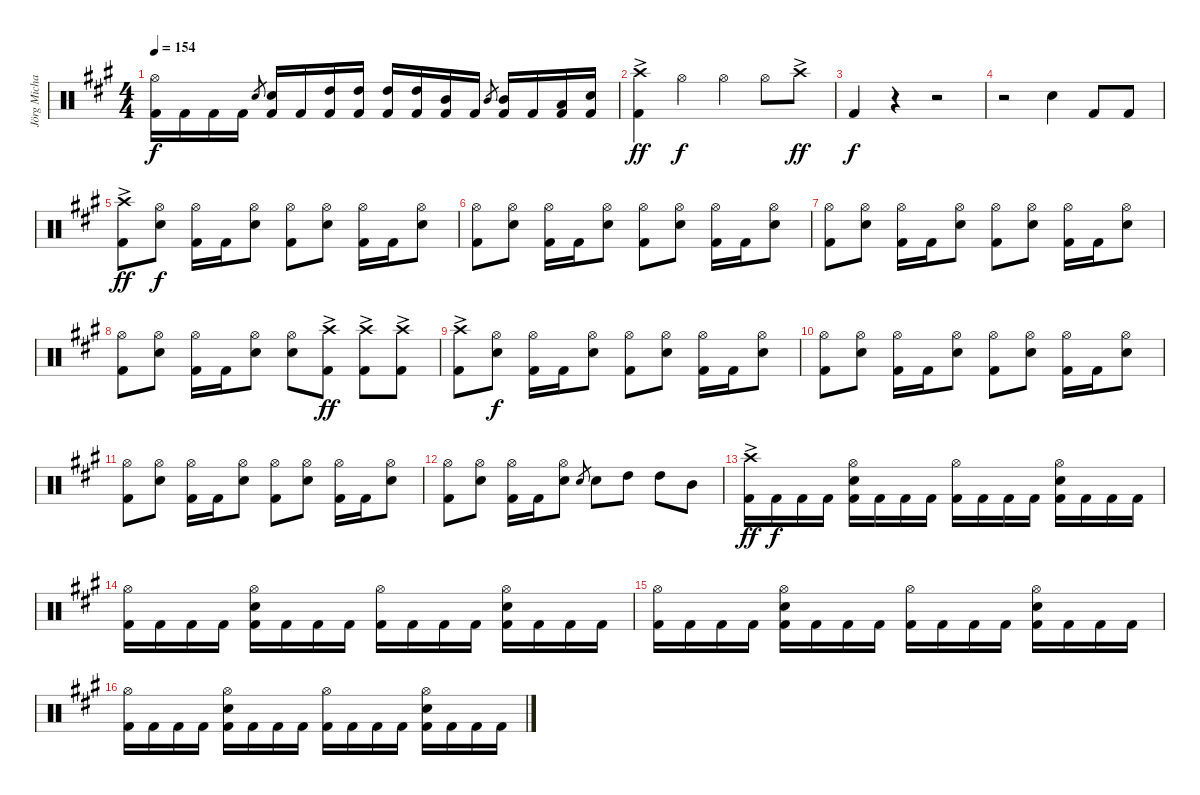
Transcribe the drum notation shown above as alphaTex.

\track ("Jörg Michael" "Jörg Micha") {instrument percussion}
\staff {score}
\articulation defaults
\ts (4 4)
\tempo 154
\clef neutral
\ks a
("Hi-Hat (open)" "Kick (hit) 2").16{dy f} "Kick (hit) 2".16 "Kick (hit) 2".16 "Kick (hit) 2".16 "Electric Snare (hit)".8{gr} ("Electric Snare (hit)" "Kick (hit) 2").16 "Kick (hit) 2".16 ("High Tom (hit)" "Kick (hit) 2").16 ("High Tom (hit)" "Kick (hit) 2").16 ("High Tom (hit)" "Kick (hit) 2").16 ("High Tom (hit)" "Kick (hit) 2").16 ("Mid Tom (hit)" "Kick (hit) 2").16 "Kick (hit) 2".16 "Mid Tom (hit)".8{gr} ("Mid Tom (hit)" "Kick (hit) 2").16 "Kick (hit) 2".16 ("Low Tom (hit)" "Kick (hit) 2").16 ("Electric Snare (hit)" "Kick (hit) 2").16 |
("Crash high (hit)"{ac} "Kick (hit) 2"{ac}).4{dy ff} "Hi-Hat (open)".4{dy f} "Hi-Hat (open)".4 "Hi-Hat (open)".8 "Crash high (hit)"{ac}.8{dy ff} |
"Kick (hit) 2".4{dy f} r.4 r.2 |
r.2 "Electric Snare (hit)".4 "Kick (hit) 2".8 "Kick (hit) 2".8 |
("Crash high (hit)"{ac} "Kick (hit) 2"{ac}).8{dy ff} ("Hi-Hat (open)" "Electric Snare (hit)").8{dy f} ("Hi-Hat (open)" "Kick (hit) 2").16 "Kick (hit) 2".16 ("Hi-Hat (open)" "Electric Snare (hit)").8 ("Hi-Hat (open)" "Kick (hit) 2").8 ("Hi-Hat (open)" "Electric Snare (hit)").8 ("Hi-Hat (open)" "Kick (hit) 2").16 "Kick (hit) 2".16 ("Hi-Hat (open)" "Electric Snare (hit)").8 |
("Hi-Hat (open)" "Kick (hit) 2").8 ("Hi-Hat (open)" "Electric Snare (hit)").8 ("Hi-Hat (open)" "Kick (hit) 2").16 "Kick (hit) 2".16 ("Hi-Hat (open)" "Electric Snare (hit)").8 ("Hi-Hat (open)" "Kick (hit) 2").8 ("Hi-Hat (open)" "Electric Snare (hit)").8 ("Hi-Hat (open)" "Kick (hit) 2").16 "Kick (hit) 2".16 ("Hi-Hat (open)" "Electric Snare (hit)").8 |
("Hi-Hat (open)" "Kick (hit) 2").8 ("Hi-Hat (open)" "Electric Snare (hit)").8 ("Hi-Hat (open)" "Kick (hit) 2").16 "Kick (hit) 2".16 ("Hi-Hat (open)" "Electric Snare (hit)").8 ("Hi-Hat (open)" "Kick (hit) 2").8 ("Hi-Hat (open)" "Electric Snare (hit)").8 ("Hi-Hat (open)" "Kick (hit) 2").16 "Kick (hit) 2".16 ("Hi-Hat (open)" "Electric Snare (hit)").8 |
("Hi-Hat (open)" "Kick (hit) 2").8 ("Hi-Hat (open)" "Electric Snare (hit)").8 ("Hi-Hat (open)" "Kick (hit) 2").16 "Kick (hit) 2".16 ("Hi-Hat (open)" "Electric Snare (hit)").8 ("Hi-Hat (open)" "Electric Snare (hit)").8 ("Crash high (hit)"{ac} "Kick (hit) 2"{ac}).8{dy ff} ("Crash high (hit)"{ac} "Kick (hit) 2"{ac}).8 ("Crash high (hit)"{ac} "Kick (hit) 2"{ac}).8 |
("Crash high (hit)"{ac} "Kick (hit) 2"{ac}).8 ("Hi-Hat (open)" "Electric Snare (hit)").8{dy f} ("Hi-Hat (open)" "Kick (hit) 2").16 "Kick (hit) 2".16 ("Hi-Hat (open)" "Electric Snare (hit)").8 ("Hi-Hat (open)" "Kick (hit) 2").8 ("Hi-Hat (open)" "Electric Snare (hit)").8 ("Hi-Hat (open)" "Kick (hit) 2").16 "Kick (hit) 2".16 ("Hi-Hat (open)" "Electric Snare (hit)").8 |
("Hi-Hat (open)" "Kick (hit) 2").8 ("Hi-Hat (open)" "Electric Snare (hit)").8 ("Hi-Hat (open)" "Kick (hit) 2").16 "Kick (hit) 2".16 ("Hi-Hat (open)" "Electric Snare (hit)").8 ("Hi-Hat (open)" "Kick (hit) 2").8 ("Hi-Hat (open)" "Electric Snare (hit)").8 ("Hi-Hat (open)" "Kick (hit) 2").16 "Kick (hit) 2".16 ("Hi-Hat (open)" "Electric Snare (hit)").8 |
("Hi-Hat (open)" "Kick (hit) 2").8 ("Hi-Hat (open)" "Electric Snare (hit)").8 ("Hi-Hat (open)" "Kick (hit) 2").16 "Kick (hit) 2".16 ("Hi-Hat (open)" "Electric Snare (hit)").8 ("Hi-Hat (open)" "Kick (hit) 2").8 ("Hi-Hat (open)" "Electric Snare (hit)").8 ("Hi-Hat (open)" "Kick (hit) 2").16 "Kick (hit) 2".16 ("Hi-Hat (open)" "Electric Snare (hit)").8 |
("Hi-Hat (open)" "Kick (hit) 2").8 ("Hi-Hat (open)" "Electric Snare (hit)").8 ("Hi-Hat (open)" "Kick (hit) 2").16 "Kick (hit) 2".16 ("Hi-Hat (open)" "Electric Snare (hit)").8 "Electric Snare (hit)".8{gr} "Electric Snare (hit)".8 "High Tom (hit)".8 "High Tom (hit)".8 "Mid Tom (hit)".8 |
("Crash high (hit)"{ac} "Kick (hit) 2"{ac}).16{dy ff} "Kick (hit) 2".16{dy f} "Kick (hit) 2".16 "Kick (hit) 2".16 ("Electric Snare (hit)" "Kick (hit) 2" "Hi-Hat (open)").16 "Kick (hit) 2".16 "Kick (hit) 2".16 "Kick (hit) 2".16 ("Kick (hit) 2" "Hi-Hat (open)").16 "Kick (hit) 2".16 "Kick (hit) 2".16 "Kick (hit) 2".16 ("Electric Snare (hit)" "Kick (hit) 2" "Hi-Hat (open)").16 "Kick (hit) 2".16 "Kick (hit) 2".16 "Kick (hit) 2".16 |
("Hi-Hat (open)" "Kick (hit) 2").16 "Kick (hit) 2".16 "Kick (hit) 2".16 "Kick (hit) 2".16 ("Electric Snare (hit)" "Kick (hit) 2" "Hi-Hat (open)").16 "Kick (hit) 2".16 "Kick (hit) 2".16 "Kick (hit) 2".16 ("Kick (hit) 2" "Hi-Hat (open)").16 "Kick (hit) 2".16 "Kick (hit) 2".16 "Kick (hit) 2".16 ("Electric Snare (hit)" "Kick (hit) 2" "Hi-Hat (open)").16 "Kick (hit) 2".16 "Kick (hit) 2".16 "Kick (hit) 2".16 |
("Hi-Hat (open)" "Kick (hit) 2").16 "Kick (hit) 2".16 "Kick (hit) 2".16 "Kick (hit) 2".16 ("Electric Snare (hit)" "Kick (hit) 2" "Hi-Hat (open)").16 "Kick (hit) 2".16 "Kick (hit) 2".16 "Kick (hit) 2".16 ("Kick (hit) 2" "Hi-Hat (open)").16 "Kick (hit) 2".16 "Kick (hit) 2".16 "Kick (hit) 2".16 ("Electric Snare (hit)" "Kick (hit) 2" "Hi-Hat (open)").16 "Kick (hit) 2".16 "Kick (hit) 2".16 "Kick (hit) 2".16 |
("Hi-Hat (open)" "Kick (hit) 2").16 "Kick (hit) 2".16 "Kick (hit) 2".16 "Kick (hit) 2".16 ("Electric Snare (hit)" "Kick (hit) 2" "Hi-Hat (open)").16 "Kick (hit) 2".16 "Kick (hit) 2".16 "Kick (hit) 2".16 ("Kick (hit) 2" "Hi-Hat (open)").16 "Kick (hit) 2".16 "Kick (hit) 2".16 "Kick (hit) 2".16 ("Electric Snare (hit)" "Kick (hit) 2" "Hi-Hat (open)").16 "Kick (hit) 2".16 "Kick (hit) 2".16 "Kick (hit) 2".16
